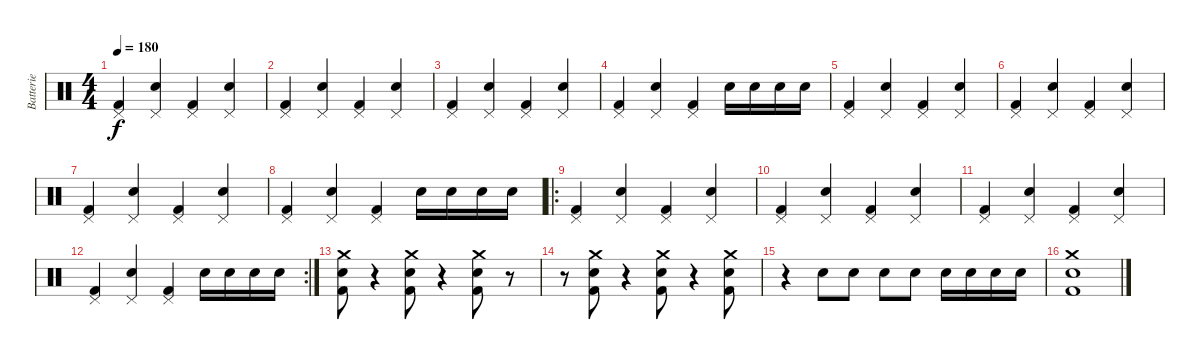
\track ("Batterie" "Batterie") {instrument percussion}
\staff {score}
\articulation defaults
\ts (4 4)
\tempo 180
\clef neutral
\ks c
("Kick (hit) 2" "Pedal Hi-Hat (hit)").4{dy f} ("Electric Snare (hit)" "Pedal Hi-Hat (hit)").4 ("Kick (hit) 2" "Pedal Hi-Hat (hit)").4 ("Electric Snare (hit)" "Pedal Hi-Hat (hit)").4 |
("Kick (hit) 2" "Pedal Hi-Hat (hit)").4 ("Electric Snare (hit)" "Pedal Hi-Hat (hit)").4 ("Kick (hit) 2" "Pedal Hi-Hat (hit)").4 ("Electric Snare (hit)" "Pedal Hi-Hat (hit)").4 |
("Kick (hit) 2" "Pedal Hi-Hat (hit)").4 ("Electric Snare (hit)" "Pedal Hi-Hat (hit)").4 ("Kick (hit) 2" "Pedal Hi-Hat (hit)").4 ("Electric Snare (hit)" "Pedal Hi-Hat (hit)").4 |
("Kick (hit) 2" "Pedal Hi-Hat (hit)").4 ("Electric Snare (hit)" "Pedal Hi-Hat (hit)").4 ("Kick (hit) 2" "Pedal Hi-Hat (hit)").4 "Electric Snare (hit)".16 "Electric Snare (hit)".16 "Electric Snare (hit)".16 "Electric Snare (hit)".16 |
("Kick (hit) 2" "Pedal Hi-Hat (hit)").4 ("Electric Snare (hit)" "Pedal Hi-Hat (hit)").4 ("Kick (hit) 2" "Pedal Hi-Hat (hit)").4 ("Electric Snare (hit)" "Pedal Hi-Hat (hit)").4 |
("Kick (hit) 2" "Pedal Hi-Hat (hit)").4 ("Electric Snare (hit)" "Pedal Hi-Hat (hit)").4 ("Kick (hit) 2" "Pedal Hi-Hat (hit)").4 ("Electric Snare (hit)" "Pedal Hi-Hat (hit)").4 |
("Kick (hit) 2" "Pedal Hi-Hat (hit)").4 ("Electric Snare (hit)" "Pedal Hi-Hat (hit)").4 ("Kick (hit) 2" "Pedal Hi-Hat (hit)").4 ("Electric Snare (hit)" "Pedal Hi-Hat (hit)").4 |
("Kick (hit) 2" "Pedal Hi-Hat (hit)").4 ("Electric Snare (hit)" "Pedal Hi-Hat (hit)").4 ("Kick (hit) 2" "Pedal Hi-Hat (hit)").4 "Electric Snare (hit)".16 "Electric Snare (hit)".16 "Electric Snare (hit)".16 "Electric Snare (hit)".16 |
\ro
("Kick (hit) 2" "Pedal Hi-Hat (hit)").4 ("Electric Snare (hit)" "Pedal Hi-Hat (hit)").4 ("Kick (hit) 2" "Pedal Hi-Hat (hit)").4 ("Electric Snare (hit)" "Pedal Hi-Hat (hit)").4 |
("Kick (hit) 2" "Pedal Hi-Hat (hit)").4 ("Electric Snare (hit)" "Pedal Hi-Hat (hit)").4 ("Kick (hit) 2" "Pedal Hi-Hat (hit)").4 ("Electric Snare (hit)" "Pedal Hi-Hat (hit)").4 |
("Kick (hit) 2" "Pedal Hi-Hat (hit)").4 ("Electric Snare (hit)" "Pedal Hi-Hat (hit)").4 ("Kick (hit) 2" "Pedal Hi-Hat (hit)").4 ("Electric Snare (hit)" "Pedal Hi-Hat (hit)").4 |
\rc 2
("Kick (hit) 2" "Pedal Hi-Hat (hit)").4 ("Electric Snare (hit)" "Pedal Hi-Hat (hit)").4 ("Kick (hit) 2" "Pedal Hi-Hat (hit)").4 "Electric Snare (hit)".16 "Electric Snare (hit)".16 "Electric Snare (hit)".16 "Electric Snare (hit)".16 |
("Kick (hit) 2" "Electric Snare (hit)" "Crash medium (hit)").8 r.4 ("Kick (hit) 2" "Electric Snare (hit)" "Crash medium (hit)").8 r.4 ("Kick (hit) 2" "Electric Snare (hit)" "Crash medium (hit)").8 r.8 |
r.8 ("Kick (hit) 2" "Electric Snare (hit)" "Crash medium (hit)").8 r.4 ("Kick (hit) 2" "Electric Snare (hit)" "Crash medium (hit)").8 r.4 ("Kick (hit) 2" "Electric Snare (hit)" "Crash medium (hit)").8 |
r.4 "Electric Snare (hit)".8 "Electric Snare (hit)".8 "Electric Snare (hit)".8 "Electric Snare (hit)".8 "Electric Snare (hit)".16 "Electric Snare (hit)".16 "Electric Snare (hit)".16 "Electric Snare (hit)".16 |
("Kick (hit) 2" "Electric Snare (hit)" "Crash medium (hit)").1
